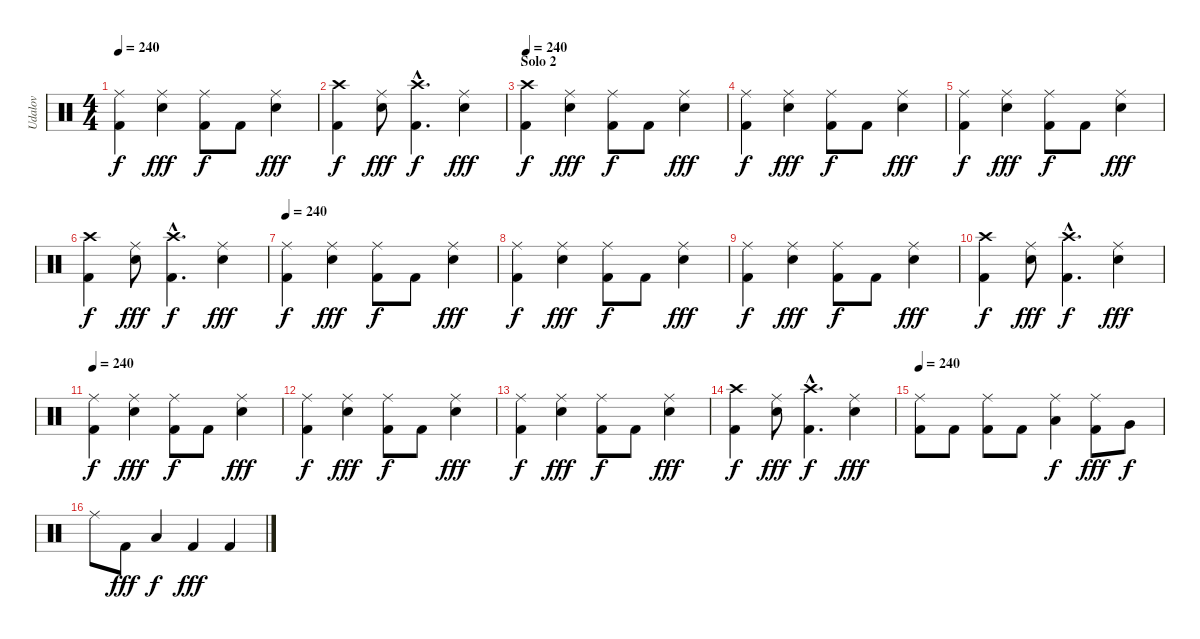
\track ("Udalov" "Udalov") {instrument percussion}
\staff {score}
\articulation defaults
\ts (4 4)
\tempo 240
\clef neutral
\ks c
("Ride (middle)" "Kick (hit) 2").4{dy f} ("Ride (middle)" "Electric Snare (hit)").4{dy fff} ("Ride (middle)" "Kick (hit) 2").8{dy f} "Kick (hit) 2".8 ("Ride (middle)" "Electric Snare (hit)").4{dy fff} |
("Crash high (hit)" "Kick (hit) 2").4{dy f} ("Ride (middle)" "Electric Snare (hit)").8{dy fff} ("Crash high (hit)"{hac} "Kick (hit) 2"{hac}).4{d dy f} ("Ride (middle)" "Electric Snare (hit)").4{dy fff} |
\section ("" "Solo 2")
\tempo 240
("Crash high (hit)" "Kick (hit) 2").4{dy f} ("Ride (middle)" "Electric Snare (hit)").4{dy fff} ("Ride (middle)" "Kick (hit) 2").8{dy f} "Kick (hit) 2".8 ("Ride (middle)" "Electric Snare (hit)").4{dy fff} |
("Ride (middle)" "Kick (hit) 2").4{dy f} ("Ride (middle)" "Electric Snare (hit)").4{dy fff} ("Ride (middle)" "Kick (hit) 2").8{dy f} "Kick (hit) 2".8 ("Ride (middle)" "Electric Snare (hit)").4{dy fff} |
("Ride (middle)" "Kick (hit) 2").4{dy f} ("Ride (middle)" "Electric Snare (hit)").4{dy fff} ("Ride (middle)" "Kick (hit) 2").8{dy f} "Kick (hit) 2".8 ("Ride (middle)" "Electric Snare (hit)").4{dy fff} |
("Crash high (hit)" "Kick (hit) 2").4{dy f} ("Ride (middle)" "Electric Snare (hit)").8{dy fff} ("Crash high (hit)"{hac} "Kick (hit) 2"{hac}).4{d dy f} ("Ride (middle)" "Electric Snare (hit)").4{dy fff} |
\tempo 240
("Ride (middle)" "Kick (hit) 2").4{dy f} ("Ride (middle)" "Electric Snare (hit)").4{dy fff} ("Ride (middle)" "Kick (hit) 2").8{dy f} "Kick (hit) 2".8 ("Ride (middle)" "Electric Snare (hit)").4{dy fff} |
("Ride (middle)" "Kick (hit) 2").4{dy f} ("Ride (middle)" "Electric Snare (hit)").4{dy fff} ("Ride (middle)" "Kick (hit) 2").8{dy f} "Kick (hit) 2".8 ("Ride (middle)" "Electric Snare (hit)").4{dy fff} |
("Ride (middle)" "Kick (hit) 2").4{dy f} ("Ride (middle)" "Electric Snare (hit)").4{dy fff} ("Ride (middle)" "Kick (hit) 2").8{dy f} "Kick (hit) 2".8 ("Ride (middle)" "Electric Snare (hit)").4{dy fff} |
("Crash high (hit)" "Kick (hit) 2").4{dy f} ("Ride (middle)" "Electric Snare (hit)").8{dy fff} ("Crash high (hit)"{hac} "Kick (hit) 2"{hac}).4{d dy f} ("Ride (middle)" "Electric Snare (hit)").4{dy fff} |
\tempo 240
("Ride (middle)" "Kick (hit) 2").4{dy f} ("Ride (middle)" "Electric Snare (hit)").4{dy fff} ("Ride (middle)" "Kick (hit) 2").8{dy f} "Kick (hit) 2".8 ("Ride (middle)" "Electric Snare (hit)").4{dy fff} |
("Ride (middle)" "Kick (hit) 2").4{dy f} ("Ride (middle)" "Electric Snare (hit)").4{dy fff} ("Ride (middle)" "Kick (hit) 2").8{dy f} "Kick (hit) 2".8 ("Ride (middle)" "Electric Snare (hit)").4{dy fff} |
("Ride (middle)" "Kick (hit) 2").4{dy f} ("Ride (middle)" "Electric Snare (hit)").4{dy fff} ("Ride (middle)" "Kick (hit) 2").8{dy f} "Kick (hit) 2".8 ("Ride (middle)" "Electric Snare (hit)").4{dy fff} |
("Crash high (hit)" "Kick (hit) 2").4{dy f} ("Ride (middle)" "Electric Snare (hit)").8{dy fff} ("Crash high (hit)"{hac} "Kick (hit) 2"{hac}).4{d dy f} ("Ride (middle)" "Electric Snare (hit)").4{dy fff} |
\tempo 240
("Ride (middle)" "Kick (hit) 2").8 "Kick (hit) 2".8 ("Ride (middle)" "Kick (hit) 2").8 "Kick (hit) 2".8 ("Ride (middle)" "Low Tom (hit)").4{dy f} ("Ride (middle)" "Kick (hit) 2").8{dy fff} "Very Low Tom (hit)".8{dy f} |
"Ride (middle)".8 "Kick (hit) 2".8{dy fff} "Low Floor Tom (hit)".4{dy f} "Kick (hit) 2".4{dy fff} "Kick (hit) 2".4
